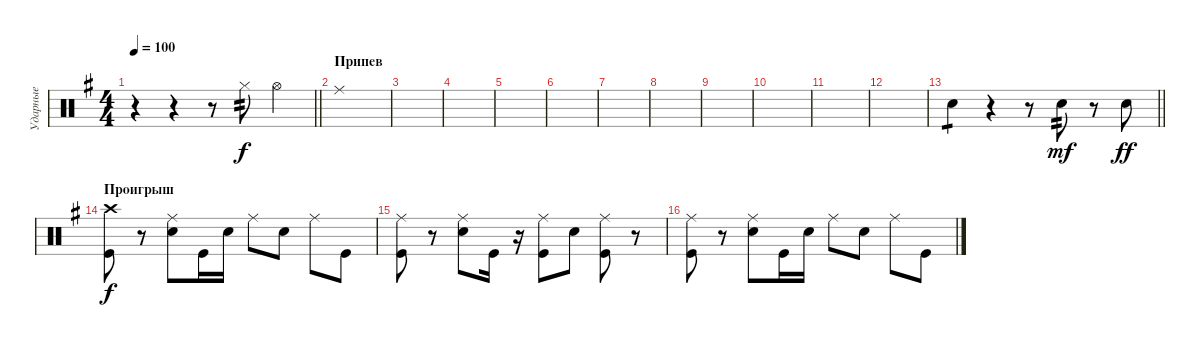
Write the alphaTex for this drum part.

\track ("Ударные" "Ударные") {instrument percussion}
\staff {score}
\articulation defaults
\ts (4 4)
\tempo 100
\clef neutral
\barLineRight lightlight
\ks eminor
r.4{dy f} r.4 r.8 "Hi-Hat (closed)".8{tp 2} "Hi-Hat (open)".4 |
\section ("" "Припев")
"Ride (middle)".1 |
|
|
|
|
|
|
|
|
|
|
\barLineRight lightlight "Snare (hit) 2".4{tp 1}
r.4 r.8 "Snare (hit) 2".8{tp 2 dy mf} r.8 "Snare (hit) 2".8{dy ff} |
\section ("" "Проигрыш")
("Crash high (hit)" "Kick (hit)").8{dy f} r.8 ("Ride (middle)" "Snare (hit) 2").8 "Kick (hit)".16 "Snare (hit) 2".16 "Ride (middle)".8 "Snare (hit) 2".8 "Ride (middle)".8 "Kick (hit)".8 |
("Ride (middle)" "Kick (hit)").8 r.8 ("Ride (middle)" "Snare (hit) 2").8 "Kick (hit)".16 r.16 ("Ride (middle)" "Kick (hit)").8 "Snare (hit) 2".8 ("Ride (middle)" "Kick (hit)").8 r.8 |
("Ride (middle)" "Kick (hit)").8 r.8 ("Ride (middle)" "Snare (hit) 2").8 "Kick (hit)".16 "Snare (hit) 2".16 "Ride (middle)".8 "Snare (hit) 2".8 "Ride (middle)".8 "Kick (hit)".8
